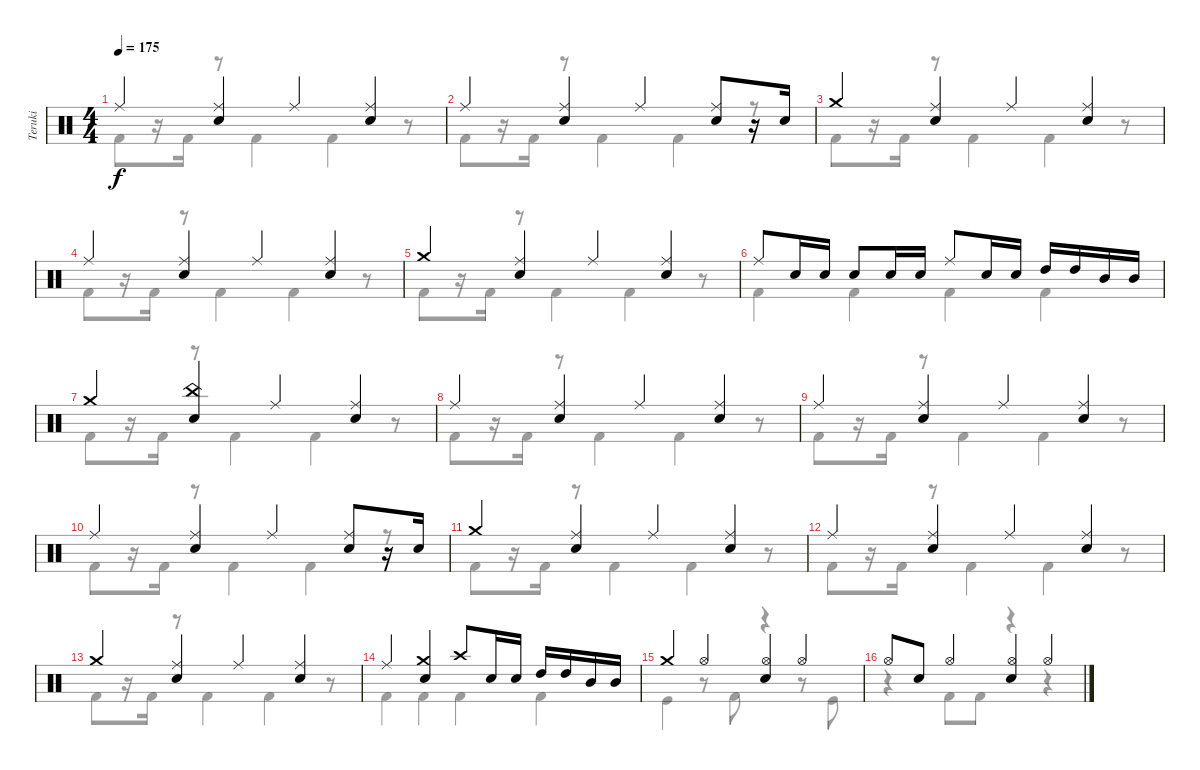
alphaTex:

\track ("Teruki" "Teruki") {instrument percussion}
\staff {score}
\articulation defaults
\voice
\ts (4 4)
\tempo 175
\clef neutral
\ks c "Ride (middle)".4{dy f}
("Ride (middle)" "Snare (hit) 2").4 "Ride (middle)".4 ("Ride (middle)" "Snare (hit) 2").4 |
"Ride (middle)".4 ("Ride (middle)" "Snare (hit) 2").4 "Ride (middle)".4 ("Ride (middle)" "Snare (hit) 2").8 r.16 "Snare (hit) 2".16 |
"Crash medium (hit)".4 ("Ride (middle)" "Snare (hit) 2").4 "Ride (middle)".4 ("Ride (middle)" "Snare (hit) 2").4 |
"Ride (middle)".4 ("Ride (middle)" "Snare (hit) 2").4 "Ride (middle)".4 ("Ride (middle)" "Snare (hit) 2").4 |
"Crash medium (hit)".4 ("Ride (middle)" "Snare (hit) 2").4 "Ride (middle)".4 ("Ride (middle)" "Snare (hit) 2").4 |
"Ride (middle)".8 "Snare (hit) 2".16 "Snare (hit) 2".16 "Snare (hit) 2".8 "Snare (hit) 2".16 "Snare (hit) 2".16 "Ride (middle)".8 "Snare (hit) 2".16 "Snare (hit) 2".16 "High Tom (hit)".16 "High Tom (hit)".16 "Mid Tom (hit)".16 "Mid Tom (hit)".16 |
"Crash medium (hit)".4 ("China (hit)" "Snare (hit) 2").4 "Ride (middle)".4 ("Ride (middle)" "Snare (hit) 2").4 |
"Ride (middle)".4 ("Ride (middle)" "Snare (hit) 2").4 "Ride (middle)".4 ("Ride (middle)" "Snare (hit) 2").4 |
"Ride (middle)".4 ("Ride (middle)" "Snare (hit) 2").4 "Ride (middle)".4 ("Ride (middle)" "Snare (hit) 2").4 |
"Ride (middle)".4 ("Ride (middle)" "Snare (hit) 2").4 "Ride (middle)".4 ("Ride (middle)" "Snare (hit) 2").8 r.16 "Snare (hit) 2".16 |
"Crash medium (hit)".4 ("Ride (middle)" "Snare (hit) 2").4 "Ride (middle)".4 ("Ride (middle)" "Snare (hit) 2").4 |
"Ride (middle)".4 ("Ride (middle)" "Snare (hit) 2").4 "Ride (middle)".4 ("Ride (middle)" "Snare (hit) 2").4 |
"Crash medium (hit)".4 ("Ride (middle)" "Snare (hit) 2").4 "Ride (middle)".4 ("Ride (middle)" "Snare (hit) 2").4 |
"Ride (middle)".4 ("Crash medium (hit)" "Snare (hit) 2").4 "Crash high (hit)".8 "Snare (hit) 2".16 "Snare (hit) 2".16 "High Tom (hit)".16 "High Tom (hit)".16 "Mid Tom (hit)".16 "Mid Tom (hit)".16 |
"Crash medium (hit)".4 "Hi-Hat (open)".4 ("Hi-Hat (open)" "Snare (hit) 2").4 "Hi-Hat (open)".4 |
"Hi-Hat (open)".8 "Snare (hit) 2".8 "Hi-Hat (open)".4 ("Hi-Hat (open)" "Snare (hit) 2").4 "Hi-Hat (open)".4
\voice
\clef neutral
\ottava regular
\simile none
\ks c "Kick (hit) 2".8{dy f}
r.16 "Kick (hit) 2".16 r.8 "Kick (hit) 2".4 "Kick (hit) 2".4 r.8 |
"Kick (hit) 2".8 r.16 "Kick (hit) 2".16 r.8 "Kick (hit) 2".4 "Kick (hit) 2".4 r.8 |
"Kick (hit) 2".8 r.16 "Kick (hit) 2".16 r.8 "Kick (hit) 2".4 "Kick (hit) 2".4 r.8 |
"Kick (hit) 2".8 r.16 "Kick (hit) 2".16 r.8 "Kick (hit) 2".4 "Kick (hit) 2".4 r.8 |
"Kick (hit) 2".8 r.16 "Kick (hit) 2".16 r.8 "Kick (hit) 2".4 "Kick (hit) 2".4 r.8 |
"Kick (hit) 2".4 "Kick (hit) 2".4 "Kick (hit) 2".4 "Kick (hit) 2".4 |
"Kick (hit) 2".8 r.16 "Kick (hit) 2".16 r.8 "Kick (hit) 2".4 "Kick (hit) 2".4 r.8 |
"Kick (hit) 2".8 r.16 "Kick (hit) 2".16 r.8 "Kick (hit) 2".4 "Kick (hit) 2".4 r.8 |
"Kick (hit) 2".8 r.16 "Kick (hit) 2".16 r.8 "Kick (hit) 2".4 "Kick (hit) 2".4 r.8 |
"Kick (hit) 2".8 r.16 "Kick (hit) 2".16 r.8 "Kick (hit) 2".4 "Kick (hit) 2".4 r.8 |
"Kick (hit) 2".8 r.16 "Kick (hit) 2".16 r.8 "Kick (hit) 2".4 "Kick (hit) 2".4 r.8 |
"Kick (hit) 2".8 r.16 "Kick (hit) 2".16 r.8 "Kick (hit) 2".4 "Kick (hit) 2".4 r.8 |
"Kick (hit) 2".8 r.16 "Kick (hit) 2".16 r.8 "Kick (hit) 2".4 "Kick (hit) 2".4 r.8 |
"Kick (hit) 2".4 "Kick (hit) 2".4 "Kick (hit) 2".4 "Kick (hit) 2".4 |
"Kick (hit)".4 r.8 "Kick (hit) 2".8 r.4 r.8 "Kick (hit)".8 |
r.4 "Kick (hit) 2".8 "Kick (hit) 2".8 r.4 r.4
